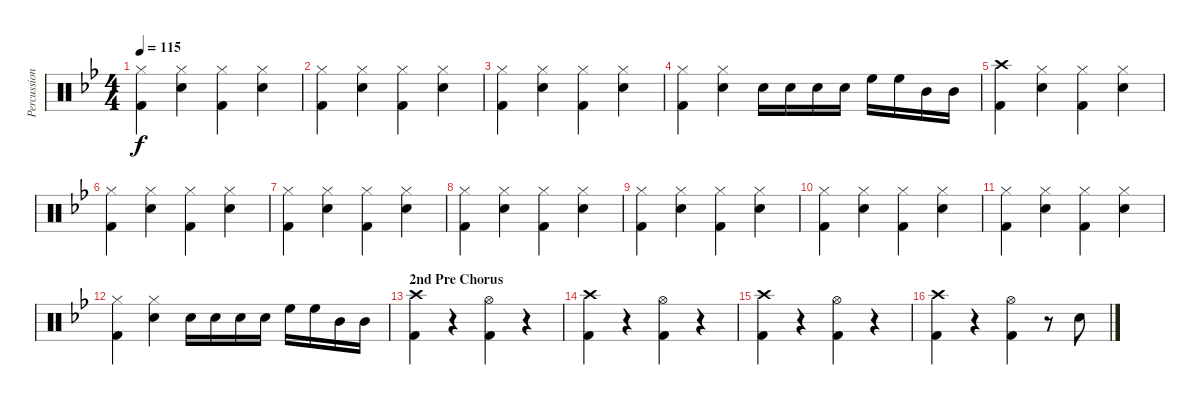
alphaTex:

\track ("Percussion" "Percussion") {instrument percussion}
\staff {score}
\articulation defaults
\ts (4 4)
\tempo 115
\clef neutral
\ks bb
("Hi-Hat (closed)" "Kick (hit) 2").4{dy f} ("Hi-Hat (closed)" "Snare (hit) 2").4 ("Hi-Hat (closed)" "Kick (hit) 2").4 ("Hi-Hat (closed)" "Snare (hit) 2").4 |
("Hi-Hat (closed)" "Kick (hit) 2").4 ("Hi-Hat (closed)" "Snare (hit) 2").4 ("Hi-Hat (closed)" "Kick (hit) 2").4 ("Hi-Hat (closed)" "Snare (hit) 2").4 |
("Hi-Hat (closed)" "Kick (hit) 2").4 ("Hi-Hat (closed)" "Snare (hit) 2").4 ("Hi-Hat (closed)" "Kick (hit) 2").4 ("Hi-Hat (closed)" "Snare (hit) 2").4 |
("Hi-Hat (closed)" "Kick (hit) 2").4 ("Hi-Hat (closed)" "Snare (hit) 2").4 "Snare (hit) 2".16 "Snare (hit) 2".16 "Snare (hit) 2".16 "Snare (hit) 2".16 "High Floor Tom (hit)".16 "High Floor Tom (hit)".16 "Mid Tom (hit)".16 "Mid Tom (hit)".16 |
("Crash high (hit)" "Kick (hit) 2").4 ("Hi-Hat (closed)" "Snare (hit) 2").4 ("Hi-Hat (closed)" "Kick (hit) 2").4 ("Hi-Hat (closed)" "Snare (hit) 2").4 |
("Hi-Hat (closed)" "Kick (hit) 2").4 ("Hi-Hat (closed)" "Snare (hit) 2").4 ("Hi-Hat (closed)" "Kick (hit) 2").4 ("Hi-Hat (closed)" "Snare (hit) 2").4 |
("Hi-Hat (closed)" "Kick (hit) 2").4 ("Hi-Hat (closed)" "Snare (hit) 2").4 ("Hi-Hat (closed)" "Kick (hit) 2").4 ("Hi-Hat (closed)" "Snare (hit) 2").4 |
("Hi-Hat (closed)" "Kick (hit) 2").4 ("Hi-Hat (closed)" "Snare (hit) 2").4 ("Hi-Hat (closed)" "Kick (hit) 2").4 ("Hi-Hat (closed)" "Snare (hit) 2").4 |
("Hi-Hat (closed)" "Kick (hit) 2").4 ("Hi-Hat (closed)" "Snare (hit) 2").4 ("Hi-Hat (closed)" "Kick (hit) 2").4 ("Hi-Hat (closed)" "Snare (hit) 2").4 |
("Hi-Hat (closed)" "Kick (hit) 2").4 ("Hi-Hat (closed)" "Snare (hit) 2").4 ("Hi-Hat (closed)" "Kick (hit) 2").4 ("Hi-Hat (closed)" "Snare (hit) 2").4 |
("Hi-Hat (closed)" "Kick (hit) 2").4 ("Hi-Hat (closed)" "Snare (hit) 2").4 ("Hi-Hat (closed)" "Kick (hit) 2").4 ("Hi-Hat (closed)" "Snare (hit) 2").4 |
("Hi-Hat (closed)" "Kick (hit) 2").4 ("Hi-Hat (closed)" "Snare (hit) 2").4 "Snare (hit) 2".16 "Snare (hit) 2".16 "Snare (hit) 2".16 "Snare (hit) 2".16 "High Floor Tom (hit)".16 "High Floor Tom (hit)".16 "Mid Tom (hit)".16 "Mid Tom (hit)".16 |
\section ("" "2nd Pre Chorus")
("Crash high (hit)" "Kick (hit) 2").4 r.4 ("Hi-Hat (open)" "Kick (hit) 2").4 r.4 |
("Crash high (hit)" "Kick (hit) 2").4 r.4 ("Hi-Hat (open)" "Kick (hit) 2").4 r.4 |
("Crash high (hit)" "Kick (hit) 2").4 r.4 ("Hi-Hat (open)" "Kick (hit) 2").4 r.4 |
("Crash high (hit)" "Kick (hit) 2").4 r.4 ("Hi-Hat (open)" "Kick (hit) 2").4 r.8 "Snare (hit) 2".8
